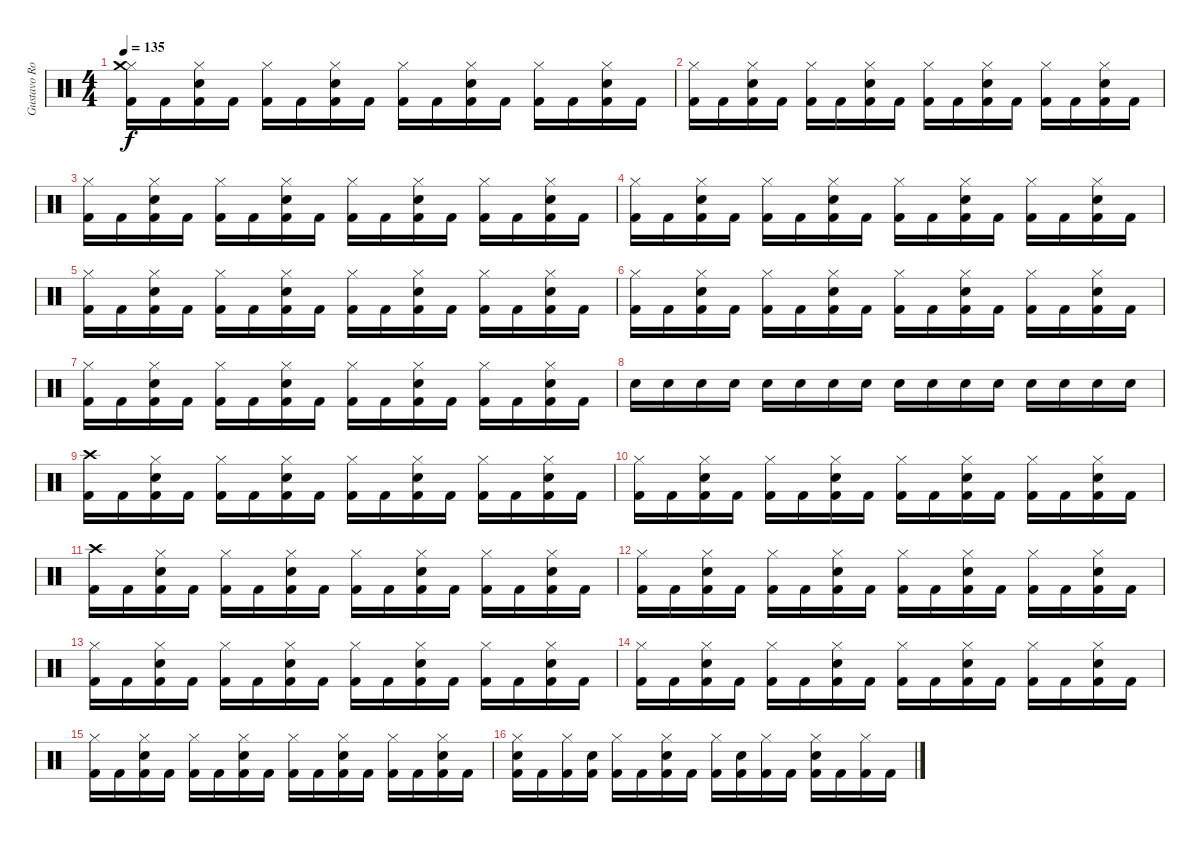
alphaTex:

\track ("Gustavo Rowek" "Gustavo Ro") {instrument percussion}
\staff {score}
\articulation defaults
\ts (4 4)
\tempo 135
\clef neutral
\ks c
("Kick (hit) 2" "Hi-Hat (closed)" "Crash medium (hit)").16{dy f} "Kick (hit) 2".16 ("Kick (hit) 2" "Hi-Hat (closed)" "Electric Snare (hit)").16 "Kick (hit) 2".16 ("Kick (hit) 2" "Hi-Hat (closed)").16 "Kick (hit) 2".16 ("Kick (hit) 2" "Hi-Hat (closed)" "Electric Snare (hit)").16 "Kick (hit) 2".16 ("Kick (hit) 2" "Hi-Hat (closed)").16 "Kick (hit) 2".16 ("Kick (hit) 2" "Hi-Hat (closed)" "Electric Snare (hit)").16 "Kick (hit) 2".16 ("Kick (hit) 2" "Hi-Hat (closed)").16 "Kick (hit) 2".16 ("Kick (hit) 2" "Hi-Hat (closed)" "Electric Snare (hit)").16 "Kick (hit) 2".16 |
("Kick (hit) 2" "Hi-Hat (closed)").16 "Kick (hit) 2".16 ("Kick (hit) 2" "Hi-Hat (closed)" "Electric Snare (hit)").16 "Kick (hit) 2".16 ("Kick (hit) 2" "Hi-Hat (closed)").16 "Kick (hit) 2".16 ("Kick (hit) 2" "Hi-Hat (closed)" "Electric Snare (hit)").16 "Kick (hit) 2".16 ("Kick (hit) 2" "Hi-Hat (closed)").16 "Kick (hit) 2".16 ("Kick (hit) 2" "Hi-Hat (closed)" "Electric Snare (hit)").16 "Kick (hit) 2".16 ("Kick (hit) 2" "Hi-Hat (closed)").16 "Kick (hit) 2".16 ("Kick (hit) 2" "Hi-Hat (closed)" "Electric Snare (hit)").16 "Kick (hit) 2".16 |
("Kick (hit) 2" "Hi-Hat (closed)").16 "Kick (hit) 2".16 ("Kick (hit) 2" "Hi-Hat (closed)" "Electric Snare (hit)").16 "Kick (hit) 2".16 ("Kick (hit) 2" "Hi-Hat (closed)").16 "Kick (hit) 2".16 ("Kick (hit) 2" "Hi-Hat (closed)" "Electric Snare (hit)").16 "Kick (hit) 2".16 ("Kick (hit) 2" "Hi-Hat (closed)").16 "Kick (hit) 2".16 ("Kick (hit) 2" "Hi-Hat (closed)" "Electric Snare (hit)").16 "Kick (hit) 2".16 ("Kick (hit) 2" "Hi-Hat (closed)").16 "Kick (hit) 2".16 ("Kick (hit) 2" "Hi-Hat (closed)" "Electric Snare (hit)").16 "Kick (hit) 2".16 |
("Kick (hit) 2" "Hi-Hat (closed)").16 "Kick (hit) 2".16 ("Kick (hit) 2" "Hi-Hat (closed)" "Electric Snare (hit)").16 "Kick (hit) 2".16 ("Kick (hit) 2" "Hi-Hat (closed)").16 "Kick (hit) 2".16 ("Kick (hit) 2" "Hi-Hat (closed)" "Electric Snare (hit)").16 "Kick (hit) 2".16 ("Kick (hit) 2" "Hi-Hat (closed)").16 "Kick (hit) 2".16 ("Kick (hit) 2" "Hi-Hat (closed)" "Electric Snare (hit)").16 "Kick (hit) 2".16 ("Kick (hit) 2" "Hi-Hat (closed)").16 "Kick (hit) 2".16 ("Kick (hit) 2" "Hi-Hat (closed)" "Electric Snare (hit)").16 "Kick (hit) 2".16 |
("Kick (hit) 2" "Hi-Hat (closed)").16 "Kick (hit) 2".16 ("Kick (hit) 2" "Hi-Hat (closed)" "Electric Snare (hit)").16 "Kick (hit) 2".16 ("Kick (hit) 2" "Hi-Hat (closed)").16 "Kick (hit) 2".16 ("Kick (hit) 2" "Hi-Hat (closed)" "Electric Snare (hit)").16 "Kick (hit) 2".16 ("Kick (hit) 2" "Hi-Hat (closed)").16 "Kick (hit) 2".16 ("Kick (hit) 2" "Hi-Hat (closed)" "Electric Snare (hit)").16 "Kick (hit) 2".16 ("Kick (hit) 2" "Hi-Hat (closed)").16 "Kick (hit) 2".16 ("Kick (hit) 2" "Hi-Hat (closed)" "Electric Snare (hit)").16 "Kick (hit) 2".16 |
("Kick (hit) 2" "Hi-Hat (closed)").16 "Kick (hit) 2".16 ("Kick (hit) 2" "Hi-Hat (closed)" "Electric Snare (hit)").16 "Kick (hit) 2".16 ("Kick (hit) 2" "Hi-Hat (closed)").16 "Kick (hit) 2".16 ("Kick (hit) 2" "Hi-Hat (closed)" "Electric Snare (hit)").16 "Kick (hit) 2".16 ("Kick (hit) 2" "Hi-Hat (closed)").16 "Kick (hit) 2".16 ("Kick (hit) 2" "Hi-Hat (closed)" "Electric Snare (hit)").16 "Kick (hit) 2".16 ("Kick (hit) 2" "Hi-Hat (closed)").16 "Kick (hit) 2".16 ("Kick (hit) 2" "Hi-Hat (closed)" "Electric Snare (hit)").16 "Kick (hit) 2".16 |
("Kick (hit) 2" "Hi-Hat (closed)").16 "Kick (hit) 2".16 ("Kick (hit) 2" "Hi-Hat (closed)" "Electric Snare (hit)").16 "Kick (hit) 2".16 ("Kick (hit) 2" "Hi-Hat (closed)").16 "Kick (hit) 2".16 ("Kick (hit) 2" "Hi-Hat (closed)" "Electric Snare (hit)").16 "Kick (hit) 2".16 ("Kick (hit) 2" "Hi-Hat (closed)").16 "Kick (hit) 2".16 ("Kick (hit) 2" "Hi-Hat (closed)" "Electric Snare (hit)").16 "Kick (hit) 2".16 ("Kick (hit) 2" "Hi-Hat (closed)").16 "Kick (hit) 2".16 ("Kick (hit) 2" "Hi-Hat (closed)" "Electric Snare (hit)").16 "Kick (hit) 2".16 |
"Electric Snare (hit)".16 "Electric Snare (hit)".16 "Electric Snare (hit)".16 "Electric Snare (hit)".16 "Electric Snare (hit)".16 "Electric Snare (hit)".16 "Electric Snare (hit)".16 "Electric Snare (hit)".16 "Electric Snare (hit)".16 "Electric Snare (hit)".16 "Electric Snare (hit)".16 "Electric Snare (hit)".16 "Electric Snare (hit)".16 "Electric Snare (hit)".16 "Electric Snare (hit)".16 "Electric Snare (hit)".16 |
("Kick (hit) 2" "Crash high (hit)").16 "Kick (hit) 2".16 ("Kick (hit) 2" "Hi-Hat (closed)" "Electric Snare (hit)").16 "Kick (hit) 2".16 ("Kick (hit) 2" "Hi-Hat (closed)").16 "Kick (hit) 2".16 ("Kick (hit) 2" "Hi-Hat (closed)" "Electric Snare (hit)").16 "Kick (hit) 2".16 ("Kick (hit) 2" "Hi-Hat (closed)").16 "Kick (hit) 2".16 ("Kick (hit) 2" "Hi-Hat (closed)" "Electric Snare (hit)").16 "Kick (hit) 2".16 ("Kick (hit) 2" "Hi-Hat (closed)").16 "Kick (hit) 2".16 ("Kick (hit) 2" "Hi-Hat (closed)" "Electric Snare (hit)").16 "Kick (hit) 2".16 |
("Kick (hit) 2" "Hi-Hat (closed)").16 "Kick (hit) 2".16 ("Kick (hit) 2" "Hi-Hat (closed)" "Electric Snare (hit)").16 "Kick (hit) 2".16 ("Kick (hit) 2" "Hi-Hat (closed)").16 "Kick (hit) 2".16 ("Kick (hit) 2" "Hi-Hat (closed)" "Electric Snare (hit)").16 "Kick (hit) 2".16 ("Kick (hit) 2" "Hi-Hat (closed)").16 "Kick (hit) 2".16 ("Kick (hit) 2" "Hi-Hat (closed)" "Electric Snare (hit)").16 "Kick (hit) 2".16 ("Kick (hit) 2" "Hi-Hat (closed)").16 "Kick (hit) 2".16 ("Kick (hit) 2" "Hi-Hat (closed)" "Electric Snare (hit)").16 "Kick (hit) 2".16 |
("Kick (hit) 2" "Crash high (hit)").16 "Kick (hit) 2".16 ("Kick (hit) 2" "Hi-Hat (closed)" "Electric Snare (hit)").16 "Kick (hit) 2".16 ("Kick (hit) 2" "Hi-Hat (closed)").16 "Kick (hit) 2".16 ("Kick (hit) 2" "Hi-Hat (closed)" "Electric Snare (hit)").16 "Kick (hit) 2".16 ("Kick (hit) 2" "Hi-Hat (closed)").16 "Kick (hit) 2".16 ("Kick (hit) 2" "Hi-Hat (closed)" "Electric Snare (hit)").16 "Kick (hit) 2".16 ("Kick (hit) 2" "Hi-Hat (closed)").16 "Kick (hit) 2".16 ("Kick (hit) 2" "Hi-Hat (closed)" "Electric Snare (hit)").16 "Kick (hit) 2".16 |
("Kick (hit) 2" "Hi-Hat (closed)").16 "Kick (hit) 2".16 ("Kick (hit) 2" "Hi-Hat (closed)" "Electric Snare (hit)").16 "Kick (hit) 2".16 ("Kick (hit) 2" "Hi-Hat (closed)").16 "Kick (hit) 2".16 ("Kick (hit) 2" "Hi-Hat (closed)" "Electric Snare (hit)").16 "Kick (hit) 2".16 ("Kick (hit) 2" "Hi-Hat (closed)").16 "Kick (hit) 2".16 ("Kick (hit) 2" "Hi-Hat (closed)" "Electric Snare (hit)").16 "Kick (hit) 2".16 ("Kick (hit) 2" "Hi-Hat (closed)").16 "Kick (hit) 2".16 ("Kick (hit) 2" "Hi-Hat (closed)" "Electric Snare (hit)").16 "Kick (hit) 2".16 |
("Kick (hit) 2" "Hi-Hat (closed)").16 "Kick (hit) 2".16 ("Kick (hit) 2" "Hi-Hat (closed)" "Electric Snare (hit)").16 "Kick (hit) 2".16 ("Kick (hit) 2" "Hi-Hat (closed)").16 "Kick (hit) 2".16 ("Kick (hit) 2" "Hi-Hat (closed)" "Electric Snare (hit)").16 "Kick (hit) 2".16 ("Kick (hit) 2" "Hi-Hat (closed)").16 "Kick (hit) 2".16 ("Kick (hit) 2" "Hi-Hat (closed)" "Electric Snare (hit)").16 "Kick (hit) 2".16 ("Kick (hit) 2" "Hi-Hat (closed)").16 "Kick (hit) 2".16 ("Kick (hit) 2" "Hi-Hat (closed)" "Electric Snare (hit)").16 "Kick (hit) 2".16 |
("Kick (hit) 2" "Hi-Hat (closed)").16 "Kick (hit) 2".16 ("Kick (hit) 2" "Hi-Hat (closed)" "Electric Snare (hit)").16 "Kick (hit) 2".16 ("Kick (hit) 2" "Hi-Hat (closed)").16 "Kick (hit) 2".16 ("Kick (hit) 2" "Hi-Hat (closed)" "Electric Snare (hit)").16 "Kick (hit) 2".16 ("Kick (hit) 2" "Hi-Hat (closed)").16 "Kick (hit) 2".16 ("Kick (hit) 2" "Hi-Hat (closed)" "Electric Snare (hit)").16 "Kick (hit) 2".16 ("Kick (hit) 2" "Hi-Hat (closed)").16 "Kick (hit) 2".16 ("Kick (hit) 2" "Hi-Hat (closed)" "Electric Snare (hit)").16 "Kick (hit) 2".16 |
("Kick (hit) 2" "Hi-Hat (closed)").16 "Kick (hit) 2".16 ("Kick (hit) 2" "Hi-Hat (closed)" "Electric Snare (hit)").16 "Kick (hit) 2".16 ("Kick (hit) 2" "Hi-Hat (closed)").16 "Kick (hit) 2".16 ("Kick (hit) 2" "Hi-Hat (closed)" "Electric Snare (hit)").16 "Kick (hit) 2".16 ("Kick (hit) 2" "Hi-Hat (closed)").16 "Kick (hit) 2".16 ("Kick (hit) 2" "Hi-Hat (closed)" "Electric Snare (hit)").16 "Kick (hit) 2".16 ("Kick (hit) 2" "Hi-Hat (closed)").16 "Kick (hit) 2".16 ("Kick (hit) 2" "Hi-Hat (closed)" "Electric Snare (hit)").16 "Kick (hit) 2".16 |
("Kick (hit) 2" "Hi-Hat (closed)" "Electric Snare (hit)").16 "Kick (hit) 2".16 ("Kick (hit) 2" "Hi-Hat (closed)").16 ("Kick (hit) 2" "Electric Snare (hit)").16 ("Kick (hit) 2" "Hi-Hat (closed)").16 "Kick (hit) 2".16 ("Kick (hit) 2" "Hi-Hat (closed)" "Electric Snare (hit)").16 "Kick (hit) 2".16 ("Kick (hit) 2" "Hi-Hat (closed)").16 ("Kick (hit) 2" "Electric Snare (hit)").16 ("Kick (hit) 2" "Hi-Hat (closed)").16 "Kick (hit) 2".16 ("Kick (hit) 2" "Hi-Hat (closed)" "Electric Snare (hit)").16 "Kick (hit) 2".16 ("Kick (hit) 2" "Hi-Hat (closed)").16 "Kick (hit) 2".16
